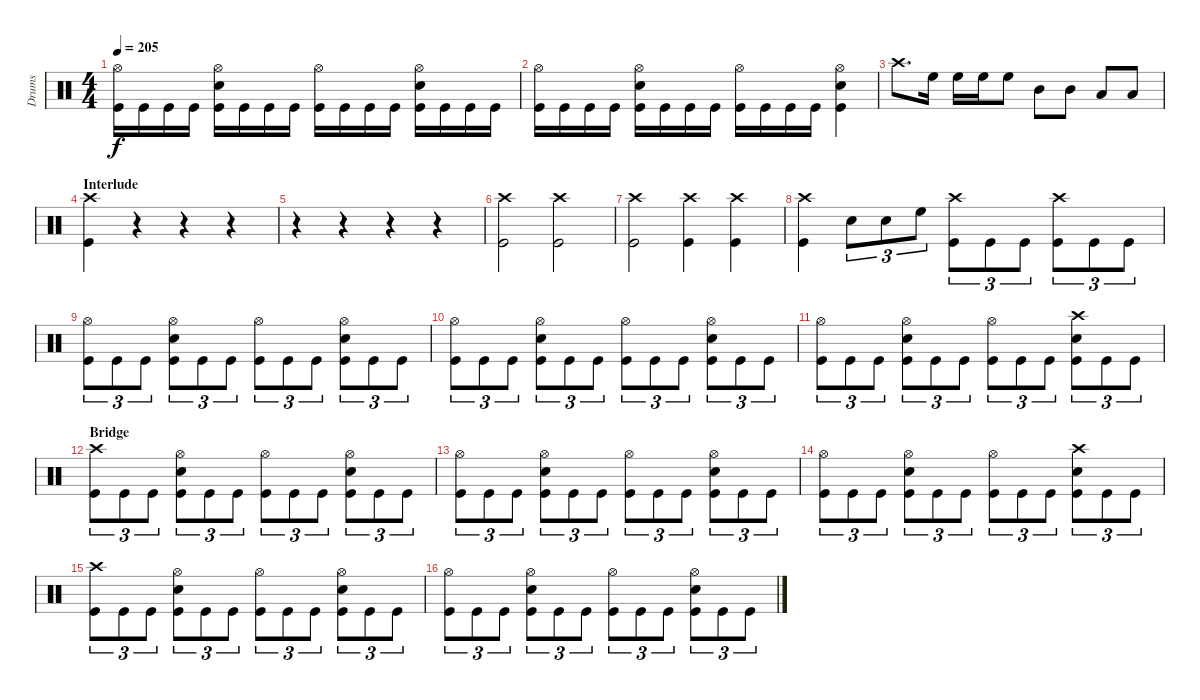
\track ("Drums" "Drums") {instrument percussion}
\staff {score}
\articulation defaults
\ts (4 4)
\tempo 205
\clef neutral
\ks c
("Hi-Hat (open)" "Kick (hit)").16{dy f} "Kick (hit)".16 "Kick (hit)".16 "Kick (hit)".16 ("Hi-Hat (open)" "Snare (hit) 2" "Kick (hit)").16 "Kick (hit)".16 "Kick (hit)".16 "Kick (hit)".16 ("Hi-Hat (open)" "Kick (hit)").16 "Kick (hit)".16 "Kick (hit)".16 "Kick (hit)".16 ("Hi-Hat (open)" "Snare (hit) 2" "Kick (hit)").16 "Kick (hit)".16 "Kick (hit)".16 "Kick (hit)".16 |
("Hi-Hat (open)" "Kick (hit)").16 "Kick (hit)".16 "Kick (hit)".16 "Kick (hit)".16 ("Hi-Hat (open)" "Snare (hit) 2" "Kick (hit)").16 "Kick (hit)".16 "Kick (hit)".16 "Kick (hit)".16 ("Hi-Hat (open)" "Kick (hit)").16 "Kick (hit)".16 "Kick (hit)".16 "Kick (hit)".16 ("Hi-Hat (open)" "Snare (hit) 2" "Kick (hit)").4 |
"Crash high (hit)".8{d} "High Floor Tom (hit)".16 "High Floor Tom (hit)".16 "High Floor Tom (hit)".16 "High Floor Tom (hit)".8 "Mid Tom (hit)".8 "Mid Tom (hit)".8 "Low Tom (hit)".8 "Low Tom (hit)".8 |
\section ("" "Interlude")
("Crash high (hit)" "Kick (hit)").4 r.4 r.4 r.4 |
r.4 r.4 r.4 r.4 |
("Crash high (hit)" "Kick (hit)").2 ("Crash high (hit)" "Kick (hit)").2 |
("Crash high (hit)" "Kick (hit)").2 ("Crash high (hit)" "Kick (hit)").4 ("Crash high (hit)" "Kick (hit)").4 |
("Crash high (hit)" "Kick (hit)").4 "Snare (hit) 2".8{tu (3 2)} "Snare (hit) 2".8{tu (3 2)} "High Floor Tom (hit)".8{tu (3 2)} ("Crash high (hit)" "Kick (hit)").8{tu (3 2)} "Kick (hit)".8{tu (3 2)} "Kick (hit)".8{tu (3 2)} ("Crash high (hit)" "Kick (hit)").8{tu (3 2)} "Kick (hit)".8{tu (3 2)} "Kick (hit)".8{tu (3 2)} |
("Hi-Hat (open)" "Kick (hit)").8{tu (3 2)} "Kick (hit)".8{tu (3 2)} "Kick (hit)".8{tu (3 2)} ("Hi-Hat (open)" "Snare (hit) 2" "Kick (hit)").8{tu (3 2)} "Kick (hit)".8{tu (3 2)} "Kick (hit)".8{tu (3 2)} ("Hi-Hat (open)" "Kick (hit)").8{tu (3 2)} "Kick (hit)".8{tu (3 2)} "Kick (hit)".8{tu (3 2)} ("Hi-Hat (open)" "Snare (hit) 2" "Kick (hit)").8{tu (3 2)} "Kick (hit)".8{tu (3 2)} "Kick (hit)".8{tu (3 2)} |
("Hi-Hat (open)" "Kick (hit)").8{tu (3 2)} "Kick (hit)".8{tu (3 2)} "Kick (hit)".8{tu (3 2)} ("Hi-Hat (open)" "Snare (hit) 2" "Kick (hit)").8{tu (3 2)} "Kick (hit)".8{tu (3 2)} "Kick (hit)".8{tu (3 2)} ("Hi-Hat (open)" "Kick (hit)").8{tu (3 2)} "Kick (hit)".8{tu (3 2)} "Kick (hit)".8{tu (3 2)} ("Hi-Hat (open)" "Snare (hit) 2" "Kick (hit)").8{tu (3 2)} "Kick (hit)".8{tu (3 2)} "Kick (hit)".8{tu (3 2)} |
("Hi-Hat (open)" "Kick (hit)").8{tu (3 2)} "Kick (hit)".8{tu (3 2)} "Kick (hit)".8{tu (3 2)} ("Hi-Hat (open)" "Snare (hit) 2" "Kick (hit)").8{tu (3 2)} "Kick (hit)".8{tu (3 2)} "Kick (hit)".8{tu (3 2)} ("Hi-Hat (open)" "Kick (hit)").8{tu (3 2)} "Kick (hit)".8{tu (3 2)} "Kick (hit)".8{tu (3 2)} ("Crash high (hit)" "Snare (hit) 2" "Kick (hit)").8{tu (3 2)} "Kick (hit)".8{tu (3 2)} "Kick (hit)".8{tu (3 2)} |
\section ("" "Bridge")
("Crash high (hit)" "Kick (hit)").8{tu (3 2)} "Kick (hit)".8{tu (3 2)} "Kick (hit)".8{tu (3 2)} ("Hi-Hat (open)" "Snare (hit) 2" "Kick (hit)").8{tu (3 2)} "Kick (hit)".8{tu (3 2)} "Kick (hit)".8{tu (3 2)} ("Hi-Hat (open)" "Kick (hit)").8{tu (3 2)} "Kick (hit)".8{tu (3 2)} "Kick (hit)".8{tu (3 2)} ("Hi-Hat (open)" "Snare (hit) 2" "Kick (hit)").8{tu (3 2)} "Kick (hit)".8{tu (3 2)} "Kick (hit)".8{tu (3 2)} |
("Hi-Hat (open)" "Kick (hit)").8{tu (3 2)} "Kick (hit)".8{tu (3 2)} "Kick (hit)".8{tu (3 2)} ("Hi-Hat (open)" "Snare (hit) 2" "Kick (hit)").8{tu (3 2)} "Kick (hit)".8{tu (3 2)} "Kick (hit)".8{tu (3 2)} ("Hi-Hat (open)" "Kick (hit)").8{tu (3 2)} "Kick (hit)".8{tu (3 2)} "Kick (hit)".8{tu (3 2)} ("Hi-Hat (open)" "Snare (hit) 2" "Kick (hit)").8{tu (3 2)} "Kick (hit)".8{tu (3 2)} "Kick (hit)".8{tu (3 2)} |
("Hi-Hat (open)" "Kick (hit)").8{tu (3 2)} "Kick (hit)".8{tu (3 2)} "Kick (hit)".8{tu (3 2)} ("Hi-Hat (open)" "Snare (hit) 2" "Kick (hit)").8{tu (3 2)} "Kick (hit)".8{tu (3 2)} "Kick (hit)".8{tu (3 2)} ("Hi-Hat (open)" "Kick (hit)").8{tu (3 2)} "Kick (hit)".8{tu (3 2)} "Kick (hit)".8{tu (3 2)} ("Crash high (hit)" "Snare (hit) 2" "Kick (hit)").8{tu (3 2)} "Kick (hit)".8{tu (3 2)} "Kick (hit)".8{tu (3 2)} |
("Crash high (hit)" "Kick (hit)").8{tu (3 2)} "Kick (hit)".8{tu (3 2)} "Kick (hit)".8{tu (3 2)} ("Hi-Hat (open)" "Snare (hit) 2" "Kick (hit)").8{tu (3 2)} "Kick (hit)".8{tu (3 2)} "Kick (hit)".8{tu (3 2)} ("Hi-Hat (open)" "Kick (hit)").8{tu (3 2)} "Kick (hit)".8{tu (3 2)} "Kick (hit)".8{tu (3 2)} ("Hi-Hat (open)" "Snare (hit) 2" "Kick (hit)").8{tu (3 2)} "Kick (hit)".8{tu (3 2)} "Kick (hit)".8{tu (3 2)} |
("Hi-Hat (open)" "Kick (hit)").8{tu (3 2)} "Kick (hit)".8{tu (3 2)} "Kick (hit)".8{tu (3 2)} ("Hi-Hat (open)" "Snare (hit) 2" "Kick (hit)").8{tu (3 2)} "Kick (hit)".8{tu (3 2)} "Kick (hit)".8{tu (3 2)} ("Hi-Hat (open)" "Kick (hit)").8{tu (3 2)} "Kick (hit)".8{tu (3 2)} "Kick (hit)".8{tu (3 2)} ("Hi-Hat (open)" "Snare (hit) 2" "Kick (hit)").8{tu (3 2)} "Kick (hit)".8{tu (3 2)} "Kick (hit)".8{tu (3 2)}
